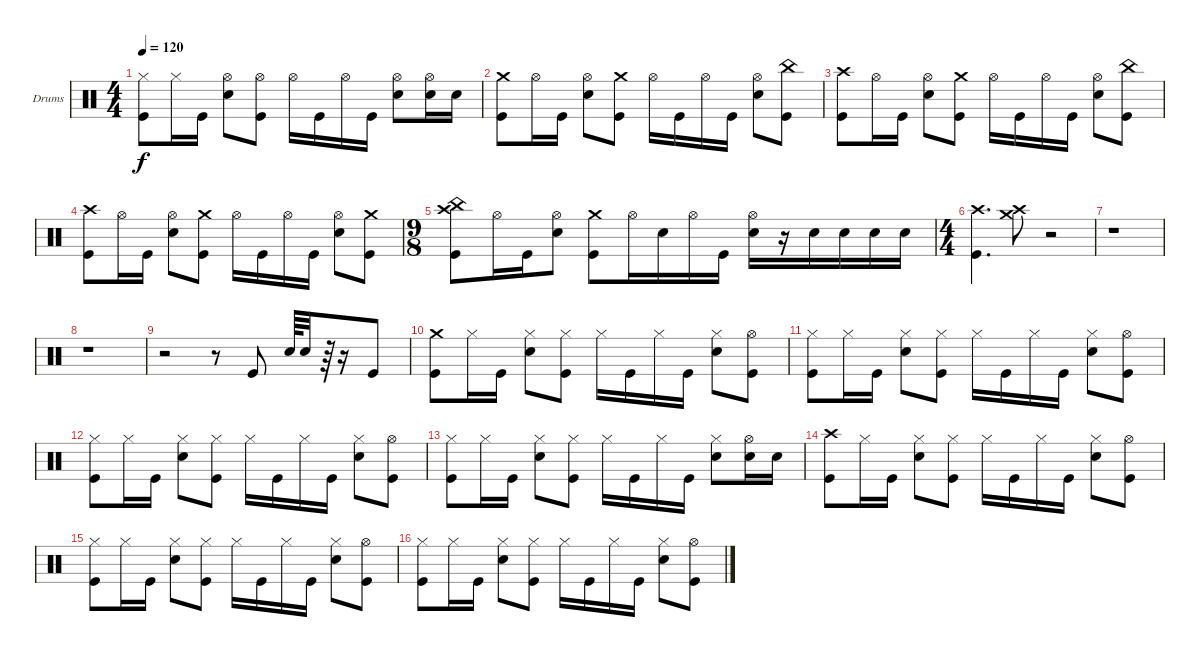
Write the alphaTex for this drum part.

\defaultSystemsLayout 4
\bracketExtendMode nobrackets
\firstSystemTrackNameOrientation horizontal
\otherSystemsTrackNameOrientation horizontal
\track ("Dave Krusen" "Drums") {instrument percussion}
\staff {score}
\articulation defaults
\ts (4 4)
\tempo 120
\clef neutral
\ks c
("Hi-Hat (closed)" "Kick (hit)").8{dy f} "Hi-Hat (closed)".16 "Kick (hit)".16 ("Hi-Hat (open)" "Snare (hit) 2").8 ("Hi-Hat (open)" "Kick (hit)").8 "Hi-Hat (open)".16 "Kick (hit)".16 "Hi-Hat (open)".16 "Kick (hit)".16 ("Hi-Hat (open)" "Snare (hit) 2").8 ("Hi-Hat (open)" "Snare (hit) 2").16 "Snare (hit) 2".16 |
("Crash medium (hit)" "Kick (hit)").8 "Hi-Hat (open)".16 "Kick (hit)".16 ("Hi-Hat (open)" "Snare (hit) 2").8 ("Crash medium (hit)" "Kick (hit)").8 "Hi-Hat (open)".16 "Kick (hit)".16 "Hi-Hat (open)".16 "Kick (hit)".16 ("Hi-Hat (open)" "Snare (hit) 2").8 ("China (hit)" "Kick (hit)").8 |
("Crash high (hit)" "Kick (hit)").8 "Hi-Hat (open)".16 "Kick (hit)".16 ("Hi-Hat (open)" "Snare (hit) 2").8 ("Crash medium (hit)" "Kick (hit)").8 "Hi-Hat (open)".16 "Kick (hit)".16 "Hi-Hat (open)".16 "Kick (hit)".16 ("Hi-Hat (open)" "Snare (hit) 2").8 ("China (hit)" "Kick (hit)").8 |
("Crash high (hit)" "Kick (hit)").8 "Hi-Hat (open)".16 "Kick (hit)".16 ("Hi-Hat (open)" "Snare (hit) 2").8 ("Crash medium (hit)" "Kick (hit)").8 "Hi-Hat (open)".16 "Kick (hit)".16 "Hi-Hat (open)".16 "Kick (hit)".16 ("Hi-Hat (open)" "Snare (hit) 2").8 ("Crash medium (hit)" "Kick (hit)").8 |
\ts (9 8)
("China (hit)" "Crash high (hit)" "Kick (hit)").8 "Hi-Hat (open)".16 "Kick (hit)".16 ("Hi-Hat (open)" "Snare (hit) 2").8 ("Crash medium (hit)" "Kick (hit)").8 "Hi-Hat (open)".16 "Snare (hit) 2".16 "Hi-Hat (open)".16 "Kick (hit)".16 ("Hi-Hat (open)" "Snare (hit) 2").16 r.16 "Snare (hit) 2".16 "Snare (hit) 2".16 "Snare (hit) 2".16 "Snare (hit) 2".16 |
\ts (4 4)
("Crash high (hit)" "Kick (hit)").4{d} ("Crash medium (hit)" "Crash high (hit)").8 r.2 |
r.1 |
r.1 |
r.2 r.8 "Kick (hit)".8 "Snare (hit) 2".64 "Snare (hit) 2".32 r.64 r.16 "Kick (hit)".8 |
("Crash medium (hit)" "Kick (hit)").8 "Hi-Hat (closed)".16 "Kick (hit)".16 ("Hi-Hat (closed)" "Snare (hit) 2").8 ("Hi-Hat (closed)" "Kick (hit)").8 "Hi-Hat (closed)".16 "Kick (hit)".16 "Hi-Hat (closed)".16 "Kick (hit)".16 ("Hi-Hat (closed)" "Snare (hit) 2").8 ("Hi-Hat (open)" "Kick (hit)").8 |
("Hi-Hat (closed)" "Kick (hit)").8 "Hi-Hat (closed)".16 "Kick (hit)".16 ("Hi-Hat (closed)" "Snare (hit) 2").8 ("Hi-Hat (closed)" "Kick (hit)").8 "Hi-Hat (closed)".16 "Kick (hit)".16 "Hi-Hat (closed)".16 "Kick (hit)".16 ("Hi-Hat (closed)" "Snare (hit) 2").8 ("Hi-Hat (open)" "Kick (hit)").8 |
("Hi-Hat (closed)" "Kick (hit)").8 "Hi-Hat (closed)".16 "Kick (hit)".16 ("Hi-Hat (closed)" "Snare (hit) 2").8 ("Hi-Hat (closed)" "Kick (hit)").8 "Hi-Hat (closed)".16 "Kick (hit)".16 "Hi-Hat (closed)".16 "Kick (hit)".16 ("Hi-Hat (closed)" "Snare (hit) 2").8 ("Hi-Hat (open)" "Kick (hit)").8 |
("Hi-Hat (closed)" "Kick (hit)").8 "Hi-Hat (closed)".16 "Kick (hit)".16 ("Hi-Hat (closed)" "Snare (hit) 2").8 ("Hi-Hat (closed)" "Kick (hit)").8 "Hi-Hat (closed)".16 "Kick (hit)".16 "Hi-Hat (closed)".16 "Kick (hit)".16 ("Hi-Hat (closed)" "Snare (hit) 2").8 ("Hi-Hat (open)" "Snare (hit) 2").16 "Snare (hit) 2".16 |
("Crash high (hit)" "Kick (hit)").8 "Hi-Hat (closed)".16 "Kick (hit)".16 ("Hi-Hat (closed)" "Snare (hit) 2").8 ("Hi-Hat (closed)" "Kick (hit)").8 "Hi-Hat (closed)".16 "Kick (hit)".16 "Hi-Hat (closed)".16 "Kick (hit)".16 ("Hi-Hat (closed)" "Snare (hit) 2").8 ("Hi-Hat (open)" "Kick (hit)").8 |
("Hi-Hat (closed)" "Kick (hit)").8 "Hi-Hat (closed)".16 "Kick (hit)".16 ("Hi-Hat (closed)" "Snare (hit) 2").8 ("Hi-Hat (closed)" "Kick (hit)").8 "Hi-Hat (closed)".16 "Kick (hit)".16 "Hi-Hat (closed)".16 "Kick (hit)".16 ("Hi-Hat (closed)" "Snare (hit) 2").8 ("Hi-Hat (open)" "Kick (hit)").8 |
("Hi-Hat (closed)" "Kick (hit)").8 "Hi-Hat (closed)".16 "Kick (hit)".16 ("Hi-Hat (closed)" "Snare (hit) 2").8 ("Hi-Hat (closed)" "Kick (hit)").8 "Hi-Hat (closed)".16 "Kick (hit)".16 "Hi-Hat (closed)".16 "Kick (hit)".16 ("Hi-Hat (closed)" "Snare (hit) 2").8 ("Hi-Hat (open)" "Kick (hit)").8
